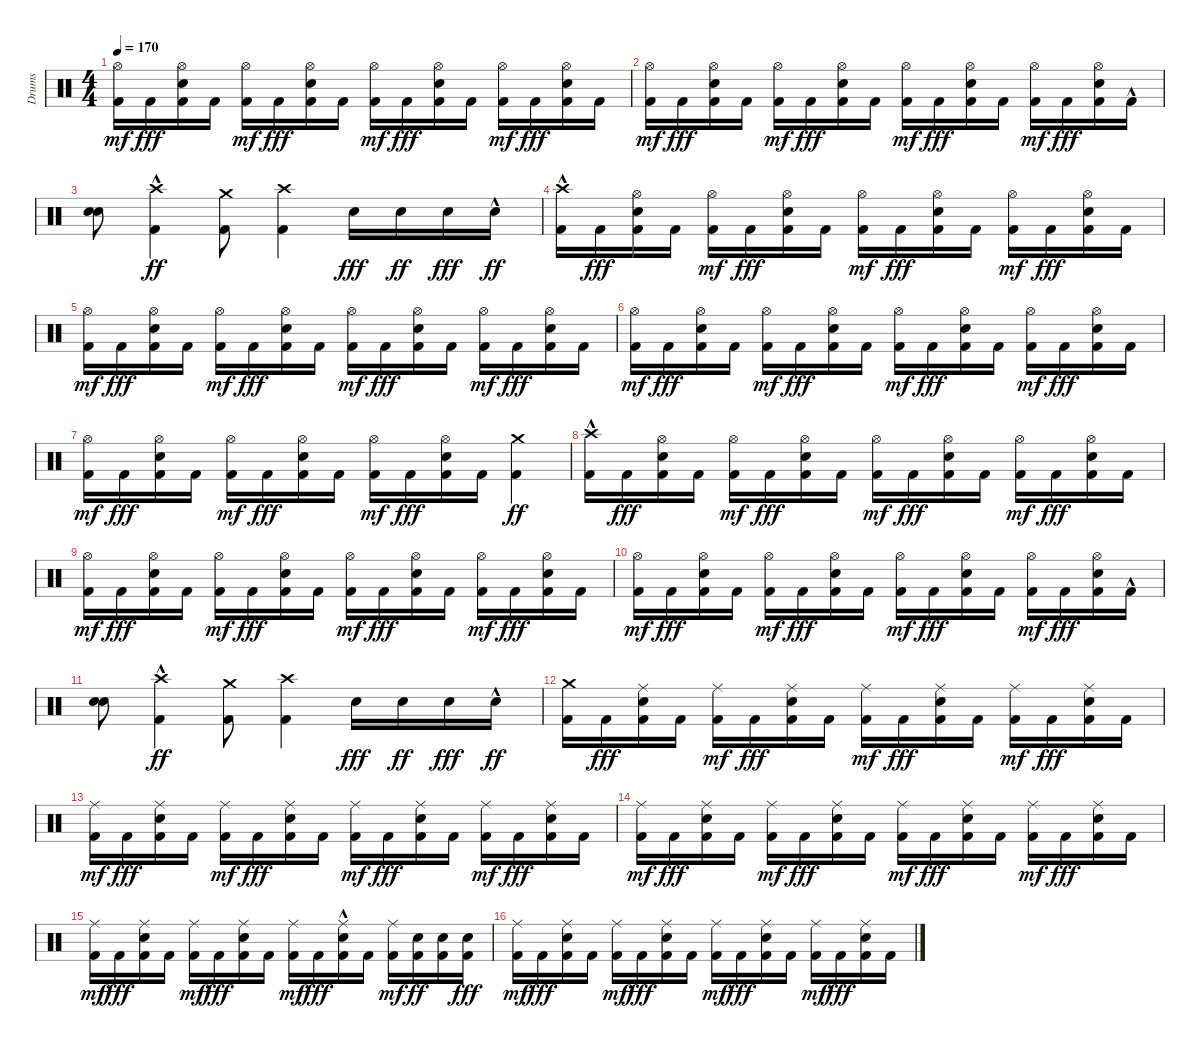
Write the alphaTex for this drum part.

\track ("Drums" "Drums") {instrument percussion}
\staff {score}
\articulation defaults
\ts (4 4)
\tempo 170
\clef neutral
\ks c
("Kick (hit) 2" "Hi-Hat (open)").16{dy mf} "Kick (hit) 2".16{dy fff} ("Kick (hit) 2" "Snare (hit) 2" "Hi-Hat (open)").16 "Kick (hit) 2".16 ("Kick (hit) 2" "Hi-Hat (open)").16{dy mf} "Kick (hit) 2".16{dy fff} ("Kick (hit) 2" "Snare (hit) 2" "Hi-Hat (open)").16 "Kick (hit) 2".16 ("Kick (hit) 2" "Hi-Hat (open)").16{dy mf} "Kick (hit) 2".16{dy fff} ("Kick (hit) 2" "Snare (hit) 2" "Hi-Hat (open)").16 "Kick (hit) 2".16 ("Kick (hit) 2" "Hi-Hat (open)").16{dy mf} "Kick (hit) 2".16{dy fff} ("Kick (hit) 2" "Snare (hit) 2" "Hi-Hat (open)").16 "Kick (hit) 2".16 |
("Kick (hit) 2" "Hi-Hat (open)").16{dy mf} "Kick (hit) 2".16{dy fff} ("Kick (hit) 2" "Snare (hit) 2" "Hi-Hat (open)").16 "Kick (hit) 2".16 ("Kick (hit) 2" "Hi-Hat (open)").16{dy mf} "Kick (hit) 2".16{dy fff} ("Kick (hit) 2" "Snare (hit) 2" "Hi-Hat (open)").16 "Kick (hit) 2".16 ("Kick (hit) 2" "Hi-Hat (open)").16{dy mf} "Kick (hit) 2".16{dy fff} ("Kick (hit) 2" "Snare (hit) 2" "Hi-Hat (open)").16 "Kick (hit) 2".16 ("Kick (hit) 2" "Hi-Hat (open)").16{dy mf} "Kick (hit) 2".16{dy fff} ("Kick (hit) 2" "Snare (hit) 2" "Hi-Hat (open)").16 "Kick (hit) 2"{hac}.16 |
("Snare (hit) 2" "Snare (hit) 2").8 ("Kick (hit) 2" "Crash high (hit)"{hac}).4{dy ff} ("Kick (hit) 2" "Crash medium (hit)").8 ("Kick (hit) 2" "Crash high (hit)").4 "Snare (hit) 2".16{dy fff} "Snare (hit) 2".16{dy ff} "Snare (hit) 2".16{dy fff} "Snare (hit) 2"{hac}.16{dy ff} |
("Kick (hit) 2" "Crash high (hit)"{hac}).16 "Kick (hit) 2".16{dy fff} ("Kick (hit) 2" "Snare (hit) 2" "Hi-Hat (open)").16 "Kick (hit) 2".16 ("Kick (hit) 2" "Hi-Hat (open)").16{dy mf} "Kick (hit) 2".16{dy fff} ("Kick (hit) 2" "Snare (hit) 2" "Hi-Hat (open)").16 "Kick (hit) 2".16 ("Kick (hit) 2" "Hi-Hat (open)").16{dy mf} "Kick (hit) 2".16{dy fff} ("Kick (hit) 2" "Snare (hit) 2" "Hi-Hat (open)").16 "Kick (hit) 2".16 ("Kick (hit) 2" "Hi-Hat (open)").16{dy mf} "Kick (hit) 2".16{dy fff} ("Kick (hit) 2" "Snare (hit) 2" "Hi-Hat (open)").16 "Kick (hit) 2".16 |
("Kick (hit) 2" "Hi-Hat (open)").16{dy mf} "Kick (hit) 2".16{dy fff} ("Kick (hit) 2" "Snare (hit) 2" "Hi-Hat (open)").16 "Kick (hit) 2".16 ("Kick (hit) 2" "Hi-Hat (open)").16{dy mf} "Kick (hit) 2".16{dy fff} ("Kick (hit) 2" "Snare (hit) 2" "Hi-Hat (open)").16 "Kick (hit) 2".16 ("Kick (hit) 2" "Hi-Hat (open)").16{dy mf} "Kick (hit) 2".16{dy fff} ("Kick (hit) 2" "Snare (hit) 2" "Hi-Hat (open)").16 "Kick (hit) 2".16 ("Kick (hit) 2" "Hi-Hat (open)").16{dy mf} "Kick (hit) 2".16{dy fff} ("Kick (hit) 2" "Snare (hit) 2" "Hi-Hat (open)").16 "Kick (hit) 2".16 |
("Kick (hit) 2" "Hi-Hat (open)").16{dy mf} "Kick (hit) 2".16{dy fff} ("Kick (hit) 2" "Snare (hit) 2" "Hi-Hat (open)").16 "Kick (hit) 2".16 ("Kick (hit) 2" "Hi-Hat (open)").16{dy mf} "Kick (hit) 2".16{dy fff} ("Kick (hit) 2" "Snare (hit) 2" "Hi-Hat (open)").16 "Kick (hit) 2".16 ("Kick (hit) 2" "Hi-Hat (open)").16{dy mf} "Kick (hit) 2".16{dy fff} ("Kick (hit) 2" "Snare (hit) 2" "Hi-Hat (open)").16 "Kick (hit) 2".16 ("Kick (hit) 2" "Hi-Hat (open)").16{dy mf} "Kick (hit) 2".16{dy fff} ("Kick (hit) 2" "Snare (hit) 2" "Hi-Hat (open)").16 "Kick (hit) 2".16 |
("Kick (hit) 2" "Hi-Hat (open)").16{dy mf} "Kick (hit) 2".16{dy fff} ("Kick (hit) 2" "Snare (hit) 2" "Hi-Hat (open)").16 "Kick (hit) 2".16 ("Kick (hit) 2" "Hi-Hat (open)").16{dy mf} "Kick (hit) 2".16{dy fff} ("Kick (hit) 2" "Snare (hit) 2" "Hi-Hat (open)").16 "Kick (hit) 2".16 ("Kick (hit) 2" "Hi-Hat (open)").16{dy mf} "Kick (hit) 2".16{dy fff} ("Kick (hit) 2" "Snare (hit) 2" "Hi-Hat (open)").16 "Kick (hit) 2".16 ("Kick (hit) 2" "Crash medium (hit)").4{dy ff} |
("Kick (hit) 2" "Crash high (hit)"{hac}).16 "Kick (hit) 2".16{dy fff} ("Kick (hit) 2" "Snare (hit) 2" "Hi-Hat (open)").16 "Kick (hit) 2".16 ("Kick (hit) 2" "Hi-Hat (open)").16{dy mf} "Kick (hit) 2".16{dy fff} ("Kick (hit) 2" "Snare (hit) 2" "Hi-Hat (open)").16 "Kick (hit) 2".16 ("Kick (hit) 2" "Hi-Hat (open)").16{dy mf} "Kick (hit) 2".16{dy fff} ("Kick (hit) 2" "Snare (hit) 2" "Hi-Hat (open)").16 "Kick (hit) 2".16 ("Kick (hit) 2" "Hi-Hat (open)").16{dy mf} "Kick (hit) 2".16{dy fff} ("Kick (hit) 2" "Snare (hit) 2" "Hi-Hat (open)").16 "Kick (hit) 2".16 |
("Kick (hit) 2" "Hi-Hat (open)").16{dy mf} "Kick (hit) 2".16{dy fff} ("Kick (hit) 2" "Snare (hit) 2" "Hi-Hat (open)").16 "Kick (hit) 2".16 ("Kick (hit) 2" "Hi-Hat (open)").16{dy mf} "Kick (hit) 2".16{dy fff} ("Kick (hit) 2" "Snare (hit) 2" "Hi-Hat (open)").16 "Kick (hit) 2".16 ("Kick (hit) 2" "Hi-Hat (open)").16{dy mf} "Kick (hit) 2".16{dy fff} ("Kick (hit) 2" "Snare (hit) 2" "Hi-Hat (open)").16 "Kick (hit) 2".16 ("Kick (hit) 2" "Hi-Hat (open)").16{dy mf} "Kick (hit) 2".16{dy fff} ("Kick (hit) 2" "Snare (hit) 2" "Hi-Hat (open)").16 "Kick (hit) 2".16 |
("Kick (hit) 2" "Hi-Hat (open)").16{dy mf} "Kick (hit) 2".16{dy fff} ("Kick (hit) 2" "Snare (hit) 2" "Hi-Hat (open)").16 "Kick (hit) 2".16 ("Kick (hit) 2" "Hi-Hat (open)").16{dy mf} "Kick (hit) 2".16{dy fff} ("Kick (hit) 2" "Snare (hit) 2" "Hi-Hat (open)").16 "Kick (hit) 2".16 ("Kick (hit) 2" "Hi-Hat (open)").16{dy mf} "Kick (hit) 2".16{dy fff} ("Kick (hit) 2" "Snare (hit) 2" "Hi-Hat (open)").16 "Kick (hit) 2".16 ("Kick (hit) 2" "Hi-Hat (open)").16{dy mf} "Kick (hit) 2".16{dy fff} ("Kick (hit) 2" "Snare (hit) 2" "Hi-Hat (open)").16 "Kick (hit) 2"{hac}.16 |
("Snare (hit) 2" "Snare (hit) 2").8 ("Kick (hit) 2" "Crash high (hit)"{hac}).4{dy ff} ("Kick (hit) 2" "Crash medium (hit)").8 ("Kick (hit) 2" "Crash high (hit)").4 "Snare (hit) 2".16{dy fff} "Snare (hit) 2".16{dy ff} "Snare (hit) 2".16{dy fff} "Snare (hit) 2"{hac}.16{dy ff} |
("Kick (hit) 2" "Crash medium (hit)").16 "Kick (hit) 2".16{dy fff} ("Kick (hit) 2" "Snare (hit) 2" "Ride (middle)").16 "Kick (hit) 2".16 ("Kick (hit) 2" "Ride (middle)").16{dy mf} "Kick (hit) 2".16{dy fff} ("Kick (hit) 2" "Snare (hit) 2" "Ride (middle)").16 "Kick (hit) 2".16 ("Kick (hit) 2" "Ride (middle)").16{dy mf} "Kick (hit) 2".16{dy fff} ("Kick (hit) 2" "Snare (hit) 2" "Ride (middle)").16 "Kick (hit) 2".16 ("Kick (hit) 2" "Ride (middle)").16{dy mf} "Kick (hit) 2".16{dy fff} ("Kick (hit) 2" "Snare (hit) 2" "Ride (middle)").16 "Kick (hit) 2".16 |
("Kick (hit) 2" "Ride (middle)").16{dy mf} "Kick (hit) 2".16{dy fff} ("Kick (hit) 2" "Snare (hit) 2" "Ride (middle)").16 "Kick (hit) 2".16 ("Kick (hit) 2" "Ride (middle)").16{dy mf} "Kick (hit) 2".16{dy fff} ("Kick (hit) 2" "Snare (hit) 2" "Ride (middle)").16 "Kick (hit) 2".16 ("Kick (hit) 2" "Ride (middle)").16{dy mf} "Kick (hit) 2".16{dy fff} ("Kick (hit) 2" "Snare (hit) 2" "Ride (middle)").16 "Kick (hit) 2".16 ("Kick (hit) 2" "Ride (middle)").16{dy mf} "Kick (hit) 2".16{dy fff} ("Kick (hit) 2" "Snare (hit) 2" "Ride (middle)").16 "Kick (hit) 2".16 |
("Kick (hit) 2" "Ride (middle)").16{dy mf} "Kick (hit) 2".16{dy fff} ("Kick (hit) 2" "Snare (hit) 2" "Ride (middle)").16 "Kick (hit) 2".16 ("Kick (hit) 2" "Ride (middle)").16{dy mf} "Kick (hit) 2".16{dy fff} ("Kick (hit) 2" "Snare (hit) 2" "Ride (middle)").16 "Kick (hit) 2".16 ("Kick (hit) 2" "Ride (middle)").16{dy mf} "Kick (hit) 2".16{dy fff} ("Kick (hit) 2" "Snare (hit) 2" "Ride (middle)").16 "Kick (hit) 2".16 ("Kick (hit) 2" "Ride (middle)").16{dy mf} "Kick (hit) 2".16{dy fff} ("Kick (hit) 2" "Snare (hit) 2" "Ride (middle)").16 "Kick (hit) 2".16 |
("Kick (hit) 2" "Ride (middle)").16{dy mf} "Kick (hit) 2".16{dy fff} ("Kick (hit) 2" "Snare (hit) 2" "Ride (middle)").16 "Kick (hit) 2".16 ("Kick (hit) 2" "Ride (middle)").16{dy mf} "Kick (hit) 2".16{dy fff} ("Kick (hit) 2" "Snare (hit) 2" "Ride (middle)").16 "Kick (hit) 2".16 ("Kick (hit) 2" "Ride (middle)").16{dy mf} "Kick (hit) 2".16{dy fff} ("Kick (hit) 2" "Snare (hit) 2"{hac} "Ride (middle)").16 "Kick (hit) 2".16 ("Kick (hit) 2" "Ride (middle)").16{dy mf} ("Kick (hit) 2" "Snare (hit) 2").16{dy ff} ("Kick (hit) 2" "Snare (hit) 2").16 ("Kick (hit) 2" "Snare (hit) 2").16{dy fff} |
("Kick (hit) 2" "Ride (middle)").16{dy mf} "Kick (hit) 2".16{dy fff} ("Kick (hit) 2" "Snare (hit) 2" "Ride (middle)").16 "Kick (hit) 2".16 ("Kick (hit) 2" "Ride (middle)").16{dy mf} "Kick (hit) 2".16{dy fff} ("Kick (hit) 2" "Snare (hit) 2" "Ride (middle)").16 "Kick (hit) 2".16 ("Kick (hit) 2" "Ride (middle)").16{dy mf} "Kick (hit) 2".16{dy fff} ("Kick (hit) 2" "Snare (hit) 2" "Ride (middle)").16 "Kick (hit) 2".16 ("Kick (hit) 2" "Ride (middle)").16{dy mf} "Kick (hit) 2".16{dy fff} ("Kick (hit) 2" "Snare (hit) 2" "Ride (middle)").16 "Kick (hit) 2".16
